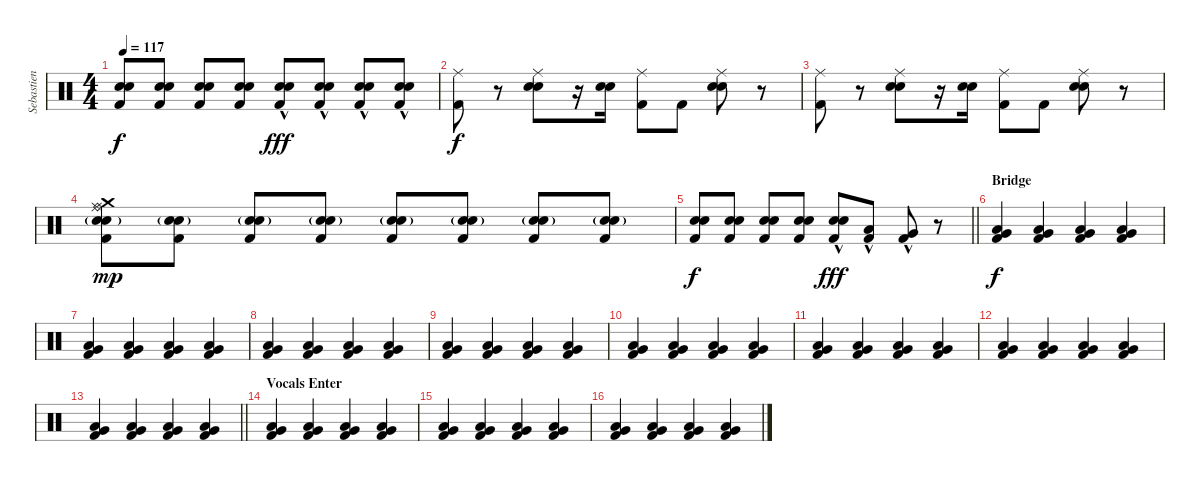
\track ("Sebastien Grainger Drums" "Sebastien ") {instrument percussion}
\staff {score}
\articulation defaults
\ts (4 4)
\tempo 117
\clef neutral
\ks c
("Kick (hit) 2" "Snare (hit) 2" "Electric Snare (hit)").8{dy f} ("Kick (hit) 2" "Snare (hit) 2" "Electric Snare (hit)").8 ("Kick (hit) 2" "Snare (hit) 2" "Electric Snare (hit)").8 ("Kick (hit) 2" "Snare (hit) 2" "Electric Snare (hit)").8 ("Kick (hit) 2" "Snare (hit) 2"{hac} "Electric Snare (hit)").8{dy fff} ("Kick (hit) 2" "Snare (hit) 2"{hac} "Electric Snare (hit)").8 ("Kick (hit) 2" "Snare (hit) 2"{hac} "Electric Snare (hit)"{hac}).8 ("Kick (hit) 2" "Snare (hit) 2"{hac} "Electric Snare (hit)"{hac}).8 |
("Ride (middle)" "Kick (hit) 2").8{dy f} r.8 ("Ride (middle)" "Snare (hit) 2" "Electric Snare (hit)").8 r.16 ("Snare (hit) 2" "Electric Snare (hit)").16 ("Ride (middle)" "Kick (hit) 2").8 "Kick (hit) 2".8 ("Ride (middle)" "Snare (hit) 2" "Electric Snare (hit)").8 r.8 |
("Ride (middle)" "Kick (hit) 2").8 r.8 ("Ride (middle)" "Snare (hit) 2" "Electric Snare (hit)").8 r.16 ("Snare (hit) 2" "Electric Snare (hit)").16 ("Ride (middle)" "Kick (hit) 2").8 "Kick (hit) 2".8 ("Ride (middle)" "Snare (hit) 2" "Electric Snare (hit)").8 r.8 |
("Kick (hit) 2" "Snare (hit) 2"{g} "Electric Snare (hit)"{g} "Crash medium (hit)" "Ride (middle)" "Ride (bell)").8{dy mp} ("Kick (hit) 2" "Snare (hit) 2"{g} "Electric Snare (hit)"{g}).8 ("Kick (hit) 2" "Snare (hit) 2"{g} "Electric Snare (hit)"{g}).8 ("Kick (hit) 2" "Snare (hit) 2"{g} "Electric Snare (hit)"{g}).8 ("Kick (hit) 2" "Snare (hit) 2"{g} "Electric Snare (hit)"{g}).8 ("Kick (hit) 2" "Snare (hit) 2"{g} "Electric Snare (hit)").8 ("Kick (hit) 2" "Snare (hit) 2"{g} "Electric Snare (hit)").8 ("Kick (hit) 2" "Snare (hit) 2"{g} "Electric Snare (hit)").8 |
\barLineRight lightlight
("Kick (hit) 2" "Snare (hit) 2" "Electric Snare (hit)").8{dy f} ("Kick (hit) 2" "Snare (hit) 2" "Electric Snare (hit)").8 ("Kick (hit) 2" "Snare (hit) 2" "Electric Snare (hit)").8 ("Kick (hit) 2" "Snare (hit) 2" "Electric Snare (hit)").8 ("Kick (hit) 2" "Snare (hit) 2"{hac} "Electric Snare (hit)").8{dy fff} ("Kick (hit) 2" "Low Tom (hit)"{hac}).8 ("Kick (hit) 2" "Very Low Tom (hit)"{hac}).8 r.8 |
\section ("" "Bridge")
("Low Floor Tom (hit)" "Very Low Tom (hit)" "Kick (hit) 2").4{dy f} ("Low Floor Tom (hit)" "Very Low Tom (hit)" "Kick (hit) 2").4 ("Low Floor Tom (hit)" "Very Low Tom (hit)" "Kick (hit) 2").4 ("Low Floor Tom (hit)" "Very Low Tom (hit)" "Kick (hit) 2").4 |
("Low Floor Tom (hit)" "Very Low Tom (hit)" "Kick (hit) 2").4 ("Low Floor Tom (hit)" "Very Low Tom (hit)" "Kick (hit) 2").4 ("Low Floor Tom (hit)" "Very Low Tom (hit)" "Kick (hit) 2").4 ("Low Floor Tom (hit)" "Very Low Tom (hit)" "Kick (hit) 2").4 |
("Low Floor Tom (hit)" "Very Low Tom (hit)" "Kick (hit) 2").4 ("Low Floor Tom (hit)" "Very Low Tom (hit)" "Kick (hit) 2").4 ("Low Floor Tom (hit)" "Very Low Tom (hit)" "Kick (hit) 2").4 ("Low Floor Tom (hit)" "Very Low Tom (hit)" "Kick (hit) 2").4 |
("Low Floor Tom (hit)" "Very Low Tom (hit)" "Kick (hit) 2").4 ("Low Floor Tom (hit)" "Very Low Tom (hit)" "Kick (hit) 2").4 ("Low Floor Tom (hit)" "Very Low Tom (hit)" "Kick (hit) 2").4 ("Low Floor Tom (hit)" "Very Low Tom (hit)" "Kick (hit) 2").4 |
("Low Floor Tom (hit)" "Very Low Tom (hit)" "Kick (hit) 2").4 ("Low Floor Tom (hit)" "Very Low Tom (hit)" "Kick (hit) 2").4 ("Low Floor Tom (hit)" "Very Low Tom (hit)" "Kick (hit) 2").4 ("Low Floor Tom (hit)" "Very Low Tom (hit)" "Kick (hit) 2").4 |
("Low Floor Tom (hit)" "Very Low Tom (hit)" "Kick (hit) 2").4 ("Low Floor Tom (hit)" "Very Low Tom (hit)" "Kick (hit) 2").4 ("Low Floor Tom (hit)" "Very Low Tom (hit)" "Kick (hit) 2").4 ("Low Floor Tom (hit)" "Very Low Tom (hit)" "Kick (hit) 2").4 |
("Low Floor Tom (hit)" "Very Low Tom (hit)" "Kick (hit) 2").4 ("Low Floor Tom (hit)" "Very Low Tom (hit)" "Kick (hit) 2").4 ("Low Floor Tom (hit)" "Very Low Tom (hit)" "Kick (hit) 2").4 ("Low Floor Tom (hit)" "Very Low Tom (hit)" "Kick (hit) 2").4 |
\barLineRight lightlight
("Low Floor Tom (hit)" "Very Low Tom (hit)" "Kick (hit) 2").4 ("Low Floor Tom (hit)" "Very Low Tom (hit)" "Kick (hit) 2").4 ("Low Floor Tom (hit)" "Very Low Tom (hit)" "Kick (hit) 2").4 ("Low Floor Tom (hit)" "Very Low Tom (hit)" "Kick (hit) 2").4 |
\section ("" "Vocals Enter")
("Low Floor Tom (hit)" "Very Low Tom (hit)" "Kick (hit) 2").4 ("Low Floor Tom (hit)" "Very Low Tom (hit)" "Kick (hit) 2").4 ("Low Floor Tom (hit)" "Very Low Tom (hit)" "Kick (hit) 2").4 ("Low Floor Tom (hit)" "Very Low Tom (hit)" "Kick (hit) 2").4 |
("Low Floor Tom (hit)" "Very Low Tom (hit)" "Kick (hit) 2").4 ("Low Floor Tom (hit)" "Very Low Tom (hit)" "Kick (hit) 2").4 ("Low Floor Tom (hit)" "Very Low Tom (hit)" "Kick (hit) 2").4 ("Low Floor Tom (hit)" "Very Low Tom (hit)" "Kick (hit) 2").4 |
("Low Floor Tom (hit)" "Very Low Tom (hit)" "Kick (hit) 2").4 ("Low Floor Tom (hit)" "Very Low Tom (hit)" "Kick (hit) 2").4 ("Low Floor Tom (hit)" "Very Low Tom (hit)" "Kick (hit) 2").4 ("Low Floor Tom (hit)" "Very Low Tom (hit)" "Kick (hit) 2").4
